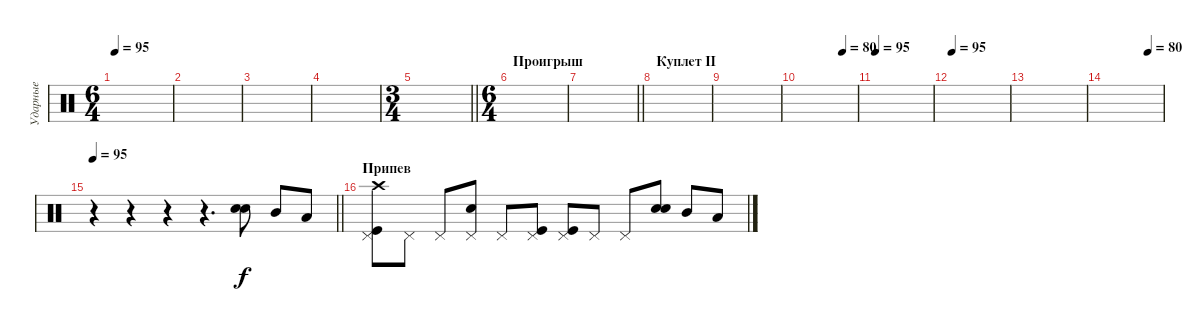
\track ("Ударные" "Ударные") {instrument percussion}
\staff {score}
\articulation defaults
\ts (6 4)
\tempo 95
\clef neutral
\ks c
|
|
|
|
\ts (3 4)
\barLineRight lightlight
|
\ts (6 4)
\section ("" "Проигрыш")
|
\barLineRight lightlight
|
\section ("" "Куплет II")
|
|
\tempo (80 0.75)
|
\tempo 95
|
\tempo 95
|
|
\tempo (80 0.75)
|
\tempo 95
\barLineRight lightlight
r.4 r.4 r.4 r.4{d} ("Snare (hit) 2" "Snare (hit) 2").8{bd 120} "Mid Tom (hit)".8 "Low Tom (hit)".8 |
\section ("" "Припев")
("Kick (hit)" "Pedal Hi-Hat (hit)" "Crash high (hit)").8 "Pedal Hi-Hat (hit)".8 "Pedal Hi-Hat (hit)".8 ("Pedal Hi-Hat (hit)" "Snare (hit) 2").8 "Pedal Hi-Hat (hit)".8 ("Kick (hit)" "Pedal Hi-Hat (hit)").8 ("Kick (hit)" "Pedal Hi-Hat (hit)").8 "Pedal Hi-Hat (hit)".8 "Pedal Hi-Hat (hit)".8 ("Snare (hit) 2" "Snare (hit) 2").8{bd 120} "Mid Tom (hit)".8 "Low Tom (hit)".8
